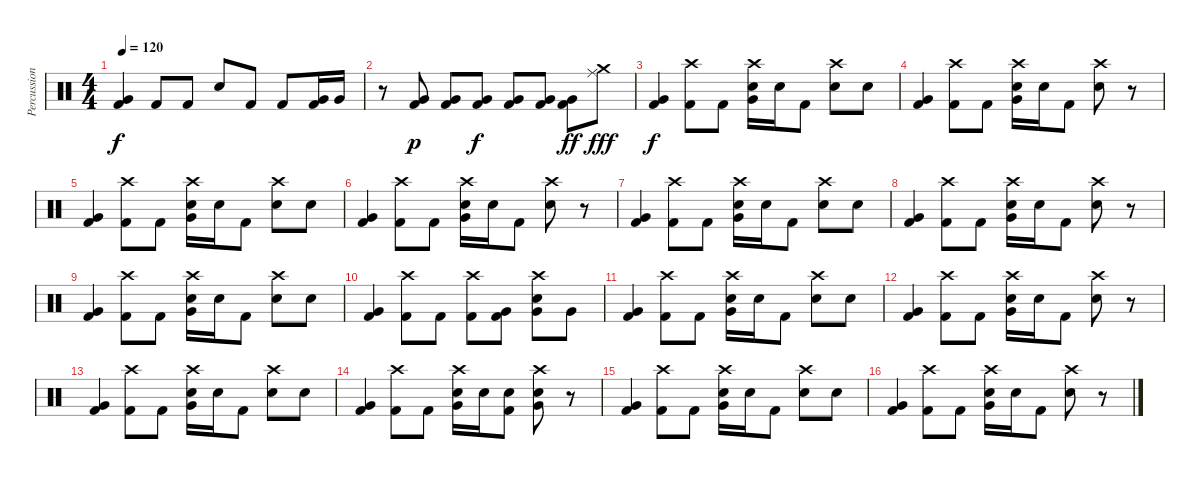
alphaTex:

\track ("Percussion" "Percussion") {instrument percussion}
\staff {score}
\articulation defaults
\ts (4 4)
\tempo 120
\clef neutral
\ks c
("Very Low Tom (hit)" "Kick (hit) 2").4{dy f} "Kick (hit) 2".8 "Kick (hit) 2".8 "Electric Snare (hit)".8 "Kick (hit) 2".8 "Kick (hit) 2".8 ("Very Low Tom (hit)" "Kick (hit) 2").16 "Very Low Tom (hit)".16 |
r.8 ("Very Low Tom (hit)" "Kick (hit) 2").8{dy p} ("Very Low Tom (hit)" "Kick (hit) 2").8 ("Very Low Tom (hit)" "Kick (hit) 2").8{dy f} ("Very Low Tom (hit)" "Kick (hit) 2").8 ("Very Low Tom (hit)" "Kick (hit) 2").8 ("Very Low Tom (hit)" "Kick (hit) 2").8{dy ff} ("Ride (middle)" "Crash medium (hit)").8{dy fff} |
("Very Low Tom (hit)" "Kick (hit) 2").4{dy f} ("Crash high (hit)" "Kick (hit) 2").8 "Kick (hit) 2".8 ("Crash high (hit)" "Very Low Tom (hit)" "Electric Snare (hit)").16 "Electric Snare (hit)".16 "Kick (hit) 2".8 ("Crash high (hit)" "Electric Snare (hit)").8 "Electric Snare (hit)".8 |
("Very Low Tom (hit)" "Kick (hit) 2").4 ("Crash high (hit)" "Kick (hit) 2").8 "Kick (hit) 2".8 ("Crash high (hit)" "Very Low Tom (hit)" "Electric Snare (hit)").16 "Electric Snare (hit)".16 "Kick (hit) 2".8 ("Crash high (hit)" "Electric Snare (hit)").8 r.8 |
("Very Low Tom (hit)" "Kick (hit) 2").4 ("Crash high (hit)" "Kick (hit) 2").8 "Kick (hit) 2".8 ("Crash high (hit)" "Very Low Tom (hit)" "Electric Snare (hit)").16 "Electric Snare (hit)".16 "Kick (hit) 2".8 ("Crash high (hit)" "Electric Snare (hit)").8 "Electric Snare (hit)".8 |
("Very Low Tom (hit)" "Kick (hit) 2").4 ("Crash high (hit)" "Kick (hit) 2").8 "Kick (hit) 2".8 ("Crash high (hit)" "Very Low Tom (hit)" "Electric Snare (hit)").16 "Electric Snare (hit)".16 "Kick (hit) 2".8 ("Crash high (hit)" "Electric Snare (hit)").8 r.8 |
("Very Low Tom (hit)" "Kick (hit) 2").4 ("Crash high (hit)" "Kick (hit) 2").8 "Kick (hit) 2".8 ("Crash high (hit)" "Very Low Tom (hit)" "Electric Snare (hit)").16 "Electric Snare (hit)".16 "Kick (hit) 2".8 ("Crash high (hit)" "Electric Snare (hit)").8 "Electric Snare (hit)".8 |
("Very Low Tom (hit)" "Kick (hit) 2").4 ("Crash high (hit)" "Kick (hit) 2").8 "Kick (hit) 2".8 ("Crash high (hit)" "Very Low Tom (hit)" "Electric Snare (hit)").16 "Electric Snare (hit)".16 "Kick (hit) 2".8 ("Crash high (hit)" "Electric Snare (hit)").8 r.8 |
("Very Low Tom (hit)" "Kick (hit) 2").4 ("Crash high (hit)" "Kick (hit) 2").8 "Kick (hit) 2".8 ("Crash high (hit)" "Very Low Tom (hit)" "Electric Snare (hit)").16 "Electric Snare (hit)".16 "Kick (hit) 2".8 ("Crash high (hit)" "Electric Snare (hit)").8 "Electric Snare (hit)".8 |
("Very Low Tom (hit)" "Kick (hit) 2").4 ("Crash high (hit)" "Kick (hit) 2").8 "Kick (hit) 2".8 ("Crash high (hit)" "Kick (hit) 2").8 ("Very Low Tom (hit)" "Kick (hit) 2").8 ("Crash high (hit)" "Very Low Tom (hit)" "Electric Snare (hit)").8 "Very Low Tom (hit)".8 |
("Very Low Tom (hit)" "Kick (hit) 2").4 ("Crash high (hit)" "Kick (hit) 2").8 "Kick (hit) 2".8 ("Crash high (hit)" "Very Low Tom (hit)" "Electric Snare (hit)").16 "Electric Snare (hit)".16 "Kick (hit) 2".8 ("Crash high (hit)" "Electric Snare (hit)").8 "Electric Snare (hit)".8 |
("Very Low Tom (hit)" "Kick (hit) 2").4 ("Crash high (hit)" "Kick (hit) 2").8 "Kick (hit) 2".8 ("Crash high (hit)" "Very Low Tom (hit)" "Electric Snare (hit)").16 "Electric Snare (hit)".16 "Kick (hit) 2".8 ("Crash high (hit)" "Electric Snare (hit)").8 r.8 |
("Very Low Tom (hit)" "Kick (hit) 2").4 ("Crash high (hit)" "Kick (hit) 2").8 "Kick (hit) 2".8 ("Crash high (hit)" "Very Low Tom (hit)" "Electric Snare (hit)").16 "Electric Snare (hit)".16 "Kick (hit) 2".8 ("Crash high (hit)" "Electric Snare (hit)").8 "Electric Snare (hit)".8 |
("Very Low Tom (hit)" "Kick (hit) 2").4 ("Crash high (hit)" "Kick (hit) 2").8 "Kick (hit) 2".8 ("Crash high (hit)" "Very Low Tom (hit)" "Electric Snare (hit)").16 "Electric Snare (hit)".16 ("Electric Snare (hit)" "Kick (hit) 2").8 ("Crash high (hit)" "Very Low Tom (hit)" "Electric Snare (hit)").8 r.8 |
("Very Low Tom (hit)" "Kick (hit) 2").4 ("Crash high (hit)" "Kick (hit) 2").8 "Kick (hit) 2".8 ("Crash high (hit)" "Very Low Tom (hit)" "Electric Snare (hit)").16 "Electric Snare (hit)".16 "Kick (hit) 2".8 ("Crash high (hit)" "Electric Snare (hit)").8 "Electric Snare (hit)".8 |
("Very Low Tom (hit)" "Kick (hit) 2").4 ("Crash high (hit)" "Kick (hit) 2").8 "Kick (hit) 2".8 ("Crash high (hit)" "Very Low Tom (hit)" "Electric Snare (hit)").16 "Electric Snare (hit)".16 "Kick (hit) 2".8 ("Crash high (hit)" "Electric Snare (hit)").8 r.8
